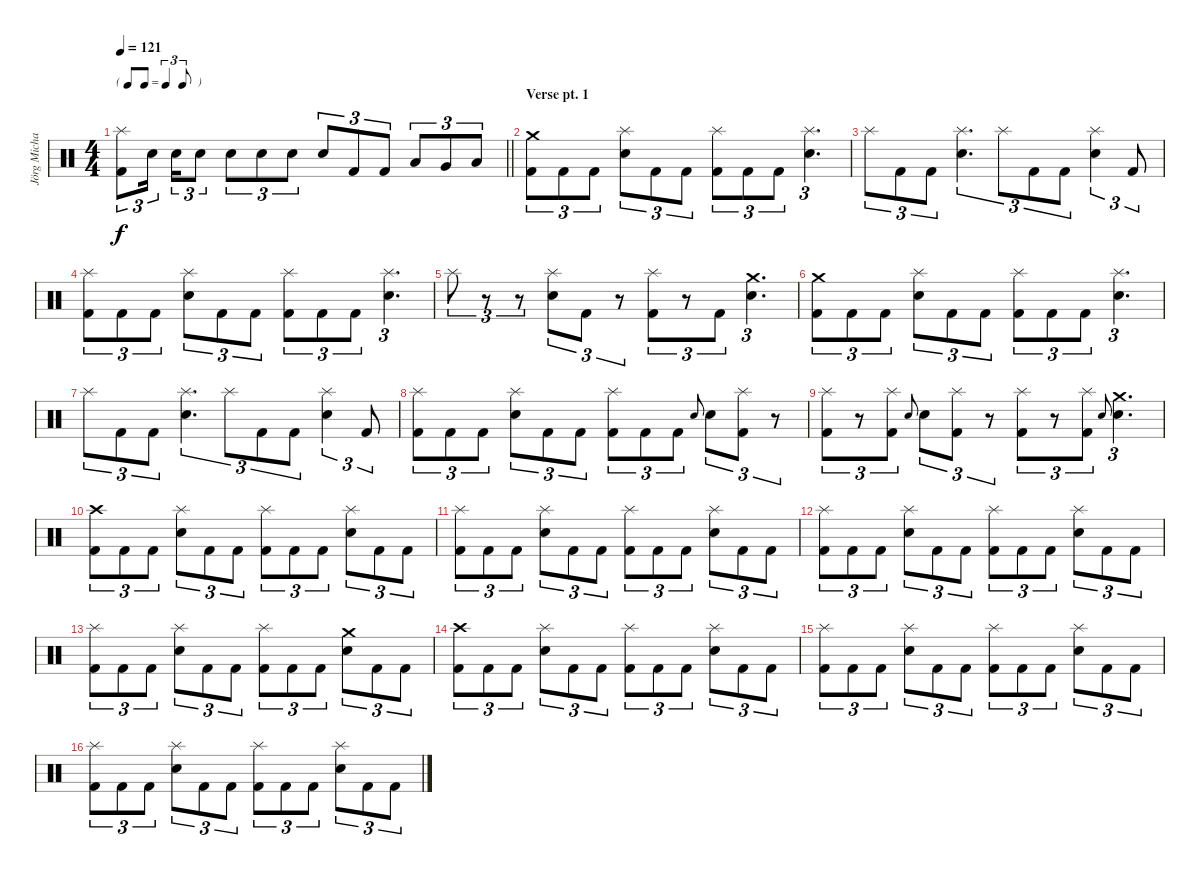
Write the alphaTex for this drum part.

\track ("Jörg Michael" "Jörg Micha") {instrument percussion}
\staff {score}
\articulation defaults
\ts (4 4)
\tf triplet8th
\tempo 121
\clef neutral
\barLineRight lightlight
\ks c
("Splash (hit)" "Kick (hit) 2").8{tu (3 2) dy f} "Snare (hit) 2".16{tu (3 2) beam splitsecondary} "Snare (hit) 2".16{tu (3 2)} "Snare (hit) 2".8{tu (3 2)} "Snare (hit) 2".8{tu (3 2)} "Snare (hit) 2".8{tu (3 2)} "Snare (hit) 2".8{tu (3 2)} "Snare (hit) 2".8{tu (3 2)} "Kick (hit) 2".8{tu (3 2)} "Kick (hit) 2".8{tu (3 2)} "Low Tom (hit)".8{tu (3 2)} "Very Low Tom (hit)".8{tu (3 2)} "Low Floor Tom (hit)".8{tu (3 2)} |
\section ("" "Verse pt. 1")
("Crash medium (hit)" "Kick (hit) 2").8{tu (3 2)} "Kick (hit) 2".8{tu (3 2)} "Kick (hit) 2".8{tu (3 2)} ("Splash (hit)" "Snare (hit) 2").8{tu (3 2)} "Kick (hit) 2".8{tu (3 2)} "Kick (hit) 2".8{tu (3 2)} ("Splash (hit)" "Kick (hit) 2").8{tu (3 2)} "Kick (hit) 2".8{tu (3 2)} "Kick (hit) 2".8{tu (3 2)} ("Splash (hit)" "Snare (hit) 2").4{d tu (3 2)} |
"Splash (hit)".8{tu (3 2)} "Kick (hit) 2".8{tu (3 2)} "Kick (hit) 2".8{tu (3 2)} ("Splash (hit)" "Snare (hit) 2").4{d tu (3 2)} "Splash (hit)".8{tu (3 2)} "Kick (hit) 2".8{tu (3 2)} "Kick (hit) 2".8{tu (3 2)} ("Splash (hit)" "Snare (hit) 2").4{tu (3 2)} "Kick (hit) 2".8{tu (3 2)} |
("Splash (hit)" "Kick (hit) 2").8{tu (3 2)} "Kick (hit) 2".8{tu (3 2)} "Kick (hit) 2".8{tu (3 2)} ("Splash (hit)" "Snare (hit) 2").8{tu (3 2)} "Kick (hit) 2".8{tu (3 2)} "Kick (hit) 2".8{tu (3 2)} ("Splash (hit)" "Kick (hit) 2").8{tu (3 2)} "Kick (hit) 2".8{tu (3 2)} "Kick (hit) 2".8{tu (3 2)} ("Splash (hit)" "Snare (hit) 2").4{d tu (3 2)} |
"Splash (hit)".8{tu (3 2)} r.8{tu (3 2)} r.8{tu (3 2)} ("Splash (hit)" "Snare (hit) 2").8{tu (3 2)} "Kick (hit) 2".8{tu (3 2)} r.8{tu (3 2)} ("Splash (hit)" "Kick (hit) 2").8{tu (3 2)} r.8{tu (3 2)} "Kick (hit) 2".8{tu (3 2)} ("Crash medium (hit)" "Snare (hit) 2").4{d tu (3 2)} |
("Crash medium (hit)" "Kick (hit) 2").8{tu (3 2)} "Kick (hit) 2".8{tu (3 2)} "Kick (hit) 2".8{tu (3 2)} ("Splash (hit)" "Snare (hit) 2").8{tu (3 2)} "Kick (hit) 2".8{tu (3 2)} "Kick (hit) 2".8{tu (3 2)} ("Splash (hit)" "Kick (hit) 2").8{tu (3 2)} "Kick (hit) 2".8{tu (3 2)} "Kick (hit) 2".8{tu (3 2)} ("Splash (hit)" "Snare (hit) 2").4{d tu (3 2)} |
"Splash (hit)".8{tu (3 2)} "Kick (hit) 2".8{tu (3 2)} "Kick (hit) 2".8{tu (3 2)} ("Splash (hit)" "Snare (hit) 2").4{d tu (3 2)} "Splash (hit)".8{tu (3 2)} "Kick (hit) 2".8{tu (3 2)} "Kick (hit) 2".8{tu (3 2)} ("Splash (hit)" "Snare (hit) 2").4{tu (3 2)} "Kick (hit) 2".8{tu (3 2)} |
("Splash (hit)" "Kick (hit) 2").8{tu (3 2)} "Kick (hit) 2".8{tu (3 2)} "Kick (hit) 2".8{tu (3 2)} ("Splash (hit)" "Snare (hit) 2").8{tu (3 2)} "Kick (hit) 2".8{tu (3 2)} "Kick (hit) 2".8{tu (3 2)} ("Splash (hit)" "Kick (hit) 2").8{tu (3 2)} "Kick (hit) 2".8{tu (3 2)} "Kick (hit) 2".8{tu (3 2)} "Snare (hit) 2".8{gr onbeat} "Snare (hit) 2".8{tu (3 2)} ("Splash (hit)" "Kick (hit) 2").8{tu (3 2)} r.8{tu (3 2)} |
("Splash (hit)" "Kick (hit) 2").8{tu (3 2)} r.8{tu (3 2)} ("Splash (hit)" "Kick (hit) 2").8{tu (3 2)} "Snare (hit) 2".8{gr onbeat} "Snare (hit) 2".8{tu (3 2)} ("Splash (hit)" "Kick (hit) 2").8{tu (3 2)} r.8{tu (3 2)} ("Splash (hit)" "Kick (hit) 2").8{tu (3 2)} r.8{tu (3 2)} ("Splash (hit)" "Kick (hit) 2").8{tu (3 2)} "Snare (hit) 2".8{gr onbeat} ("Crash medium (hit)" "Snare (hit) 2").4{d tu (3 2)} |
("Crash high (hit)" "Kick (hit) 2").8{tu (3 2)} "Kick (hit) 2".8{tu (3 2)} "Kick (hit) 2".8{tu (3 2)} ("Splash (hit)" "Snare (hit) 2").8{tu (3 2)} "Kick (hit) 2".8{tu (3 2)} "Kick (hit) 2".8{tu (3 2)} ("Splash (hit)" "Kick (hit) 2").8{tu (3 2)} "Kick (hit) 2".8{tu (3 2)} "Kick (hit) 2".8{tu (3 2)} ("Splash (hit)" "Snare (hit) 2").8{tu (3 2)} "Kick (hit) 2".8{tu (3 2)} "Kick (hit) 2".8{tu (3 2)} |
("Splash (hit)" "Kick (hit) 2").8{tu (3 2)} "Kick (hit) 2".8{tu (3 2)} "Kick (hit) 2".8{tu (3 2)} ("Splash (hit)" "Snare (hit) 2").8{tu (3 2)} "Kick (hit) 2".8{tu (3 2)} "Kick (hit) 2".8{tu (3 2)} ("Splash (hit)" "Kick (hit) 2").8{tu (3 2)} "Kick (hit) 2".8{tu (3 2)} "Kick (hit) 2".8{tu (3 2)} ("Splash (hit)" "Snare (hit) 2").8{tu (3 2)} "Kick (hit) 2".8{tu (3 2)} "Kick (hit) 2".8{tu (3 2)} |
("Splash (hit)" "Kick (hit) 2").8{tu (3 2)} "Kick (hit) 2".8{tu (3 2)} "Kick (hit) 2".8{tu (3 2)} ("Splash (hit)" "Snare (hit) 2").8{tu (3 2)} "Kick (hit) 2".8{tu (3 2)} "Kick (hit) 2".8{tu (3 2)} ("Splash (hit)" "Kick (hit) 2").8{tu (3 2)} "Kick (hit) 2".8{tu (3 2)} "Kick (hit) 2".8{tu (3 2)} ("Splash (hit)" "Snare (hit) 2").8{tu (3 2)} "Kick (hit) 2".8{tu (3 2)} "Kick (hit) 2".8{tu (3 2)} |
("Splash (hit)" "Kick (hit) 2").8{tu (3 2)} "Kick (hit) 2".8{tu (3 2)} "Kick (hit) 2".8{tu (3 2)} ("Splash (hit)" "Snare (hit) 2").8{tu (3 2)} "Kick (hit) 2".8{tu (3 2)} "Kick (hit) 2".8{tu (3 2)} ("Splash (hit)" "Kick (hit) 2").8{tu (3 2)} "Kick (hit) 2".8{tu (3 2)} "Kick (hit) 2".8{tu (3 2)} ("Crash medium (hit)" "Snare (hit) 2").8{tu (3 2)} "Kick (hit) 2".8{tu (3 2)} "Kick (hit) 2".8{tu (3 2)} |
("Crash high (hit)" "Kick (hit) 2").8{tu (3 2)} "Kick (hit) 2".8{tu (3 2)} "Kick (hit) 2".8{tu (3 2)} ("Splash (hit)" "Snare (hit) 2").8{tu (3 2)} "Kick (hit) 2".8{tu (3 2)} "Kick (hit) 2".8{tu (3 2)} ("Splash (hit)" "Kick (hit) 2").8{tu (3 2)} "Kick (hit) 2".8{tu (3 2)} "Kick (hit) 2".8{tu (3 2)} ("Splash (hit)" "Snare (hit) 2").8{tu (3 2)} "Kick (hit) 2".8{tu (3 2)} "Kick (hit) 2".8{tu (3 2)} |
("Splash (hit)" "Kick (hit) 2").8{tu (3 2)} "Kick (hit) 2".8{tu (3 2)} "Kick (hit) 2".8{tu (3 2)} ("Splash (hit)" "Snare (hit) 2").8{tu (3 2)} "Kick (hit) 2".8{tu (3 2)} "Kick (hit) 2".8{tu (3 2)} ("Splash (hit)" "Kick (hit) 2").8{tu (3 2)} "Kick (hit) 2".8{tu (3 2)} "Kick (hit) 2".8{tu (3 2)} ("Splash (hit)" "Snare (hit) 2").8{tu (3 2)} "Kick (hit) 2".8{tu (3 2)} "Kick (hit) 2".8{tu (3 2)} |
("Splash (hit)" "Kick (hit) 2").8{tu (3 2)} "Kick (hit) 2".8{tu (3 2)} "Kick (hit) 2".8{tu (3 2)} ("Splash (hit)" "Snare (hit) 2").8{tu (3 2)} "Kick (hit) 2".8{tu (3 2)} "Kick (hit) 2".8{tu (3 2)} ("Splash (hit)" "Kick (hit) 2").8{tu (3 2)} "Kick (hit) 2".8{tu (3 2)} "Kick (hit) 2".8{tu (3 2)} ("Splash (hit)" "Snare (hit) 2").8{tu (3 2)} "Kick (hit) 2".8{tu (3 2)} "Kick (hit) 2".8{tu (3 2)}
